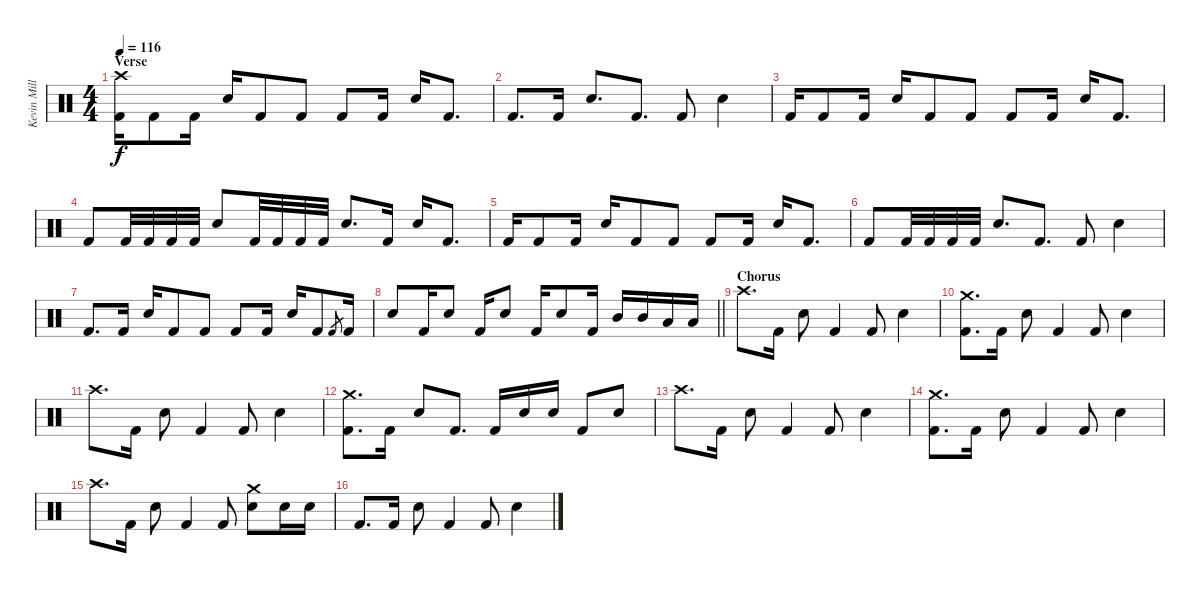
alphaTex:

\track ("Kevin Miller (Drums)" "Kevin Mill") {instrument percussion}
\staff {score}
\articulation defaults
\ts (4 4)
\section ("" "Verse")
\tempo 116
\clef neutral
\ks c
("Crash high (hit)" "Kick (hit) 2").16{dy f} "Kick (hit) 2".8 "Kick (hit) 2".16 "Electric Snare (hit)".16 "Kick (hit) 2".8 "Kick (hit) 2".8 "Kick (hit) 2".8 "Kick (hit) 2".16 "Electric Snare (hit)".16 "Kick (hit) 2".8{d} |
"Kick (hit) 2".8{d} "Kick (hit) 2".16 "Electric Snare (hit)".8{d} "Kick (hit) 2".8{d} "Kick (hit) 2".8 "Electric Snare (hit)".4 |
"Kick (hit) 2".16 "Kick (hit) 2".8 "Kick (hit) 2".16 "Electric Snare (hit)".16 "Kick (hit) 2".8 "Kick (hit) 2".8 "Kick (hit) 2".8 "Kick (hit) 2".16 "Electric Snare (hit)".16 "Kick (hit) 2".8{d} |
"Kick (hit) 2".8 "Kick (hit) 2".32 "Kick (hit) 2".32 "Kick (hit) 2".32 "Kick (hit) 2".32 "Electric Snare (hit)".8 "Kick (hit) 2".32 "Kick (hit) 2".32 "Kick (hit) 2".32 "Kick (hit) 2".32 "Electric Snare (hit)".8{d} "Kick (hit) 2".16 "Electric Snare (hit)".16 "Kick (hit) 2".8{d} |
"Kick (hit) 2".16 "Kick (hit) 2".8 "Kick (hit) 2".16 "Electric Snare (hit)".16 "Kick (hit) 2".8 "Kick (hit) 2".8 "Kick (hit) 2".8 "Kick (hit) 2".16 "Electric Snare (hit)".16 "Kick (hit) 2".8{d} |
"Kick (hit) 2".8 "Kick (hit) 2".32 "Kick (hit) 2".32 "Kick (hit) 2".32 "Kick (hit) 2".32 "Electric Snare (hit)".8{d} "Kick (hit) 2".8{d} "Kick (hit) 2".8 "Electric Snare (hit)".4 |
"Kick (hit) 2".8{d} "Kick (hit) 2".16 "Electric Snare (hit)".16 "Kick (hit) 2".8 "Kick (hit) 2".8 "Kick (hit) 2".8 "Kick (hit) 2".16 "Electric Snare (hit)".16 "Kick (hit) 2".8 "Kick (hit) 2".8{gr} "Kick (hit) 2".16 |
\barLineRight lightlight "Electric Snare (hit)".8 "Kick (hit) 2".16 "Electric Snare (hit)".8 "Kick (hit) 2".16 "Electric Snare (hit)".8 "Kick (hit) 2".16 "Electric Snare (hit)".8 "Kick (hit) 2".16 "Mid Tom (hit)".16 "Mid Tom (hit)".16 "Low Tom (hit)".16 "Low Tom (hit)".16
|
\section ("" "Chorus")
"Crash high (hit)".8{d} "Kick (hit) 2".16 "Electric Snare (hit)".8 "Kick (hit) 2".4 "Kick (hit) 2".8 "Electric Snare (hit)".4 |
("Crash medium (hit)" "Kick (hit) 2").8{d} "Kick (hit) 2".16 "Electric Snare (hit)".8 "Kick (hit) 2".4 "Kick (hit) 2".8 "Electric Snare (hit)".4 |
"Crash high (hit)".8{d} "Kick (hit) 2".16 "Electric Snare (hit)".8 "Kick (hit) 2".4 "Kick (hit) 2".8 "Electric Snare (hit)".4 |
("Crash medium (hit)" "Kick (hit) 2").8{d} "Kick (hit) 2".16 "Electric Snare (hit)".8 "Kick (hit) 2".8{d} "Kick (hit) 2".16 "Electric Snare (hit)".16 "Electric Snare (hit)".16 "Kick (hit) 2".8 "Electric Snare (hit)".8 |
"Crash high (hit)".8{d} "Kick (hit) 2".16 "Electric Snare (hit)".8 "Kick (hit) 2".4 "Kick (hit) 2".8 "Electric Snare (hit)".4 |
("Crash medium (hit)" "Kick (hit) 2").8{d} "Kick (hit) 2".16 "Electric Snare (hit)".8 "Kick (hit) 2".4 "Kick (hit) 2".8 "Electric Snare (hit)".4 |
"Crash high (hit)".8{d} "Kick (hit) 2".16 "Electric Snare (hit)".8 "Kick (hit) 2".4 "Kick (hit) 2".8 ("Crash medium (hit)" "Electric Snare (hit)").8 "Electric Snare (hit)".16 "Electric Snare (hit)".16 |
"Kick (hit) 2".8{d} "Kick (hit) 2".16 "Electric Snare (hit)".8 "Kick (hit) 2".4 "Kick (hit) 2".8 "Electric Snare (hit)".4
